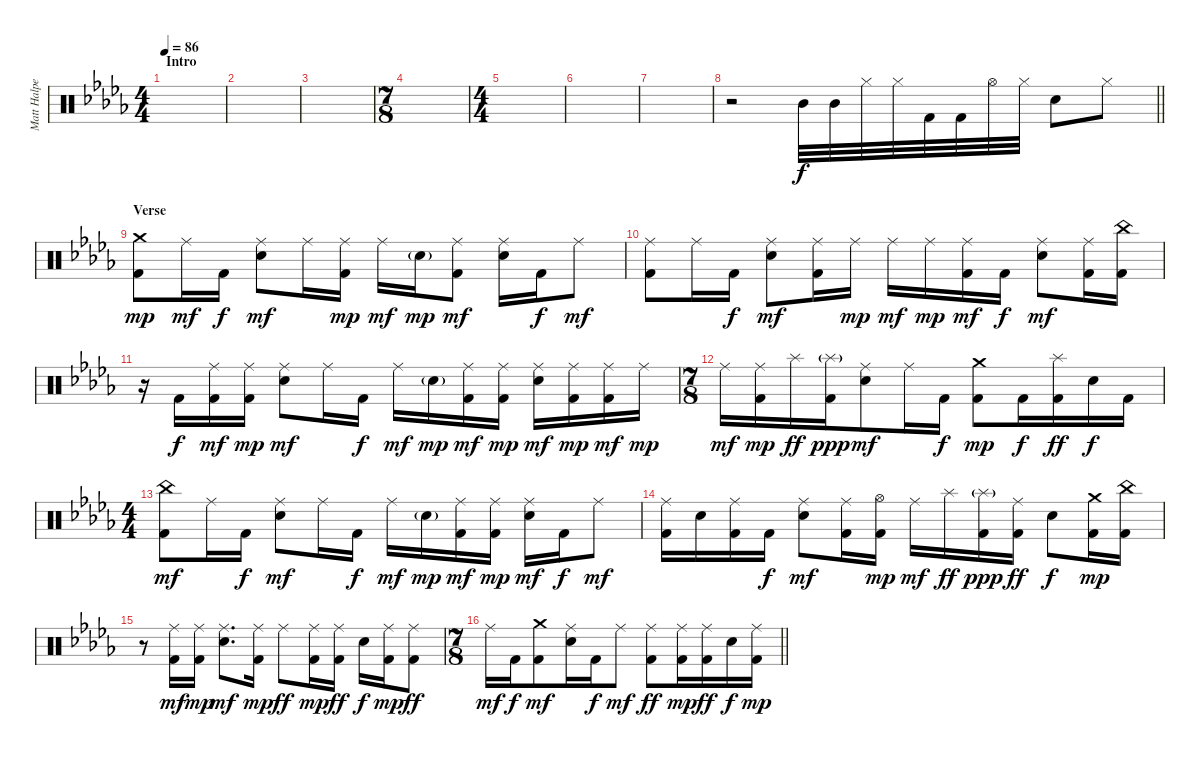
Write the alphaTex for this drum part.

\track ("Matt Halpern - Drums" "Matt Halpe") {instrument percussion}
\staff {score}
\articulation defaults
\ts (4 4)
\section ("" "Intro")
\tempo 86
\clef neutral
\ks bbminor
|
|
|
\ts (7 8)
|
\ts (4 4)
|
|
|
\barLineRight lightlight
r.2 "Mid Tom (hit)".32 "Mid Tom (hit)".32 "Hi-Hat (closed)".32 "Hi-Hat (closed)".32 "Kick (hit) 2".32 "Kick (hit) 2".32 "Hi-Hat (open)".32 "Hi-Hat (closed)".32 "Snare (hit) 2".8 "Hi-Hat (closed)".8 |
\section ("" "Verse")
("Crash medium (hit)" "Kick (hit) 2").8{dy mp} "Ride (middle)".16{dy mf} "Kick (hit) 2".16{dy f} ("Ride (middle)" "Snare (hit) 2").8{dy mf} "Ride (middle)".16 ("Ride (middle)" "Kick (hit) 2").16{dy mp} "Ride (middle)".16{dy mf} "Snare (hit) 2"{g}.16{dy mp} ("Ride (middle)" "Kick (hit) 2").8{dy mf} ("Ride (middle)" "Snare (hit) 2").16 "Kick (hit) 2".16{dy f} "Ride (middle)".8{dy mf} |
("Ride (middle)" "Kick (hit) 2").8 "Ride (middle)".16 "Kick (hit) 2".16{dy f} ("Ride (middle)" "Snare (hit) 2").8{dy mf} ("Ride (middle)" "Kick (hit) 2").16 "Ride (middle)".16{dy mp} "Ride (middle)".16{dy mf} "Ride (middle)".16{dy mp} ("Ride (middle)" "Kick (hit) 2").16{dy mf} "Kick (hit) 2".16{dy f} ("Ride (middle)" "Snare (hit) 2").8{dy mf} ("Ride (middle)" "Kick (hit) 2").16 ("China (hit)" "Kick (hit) 2").16 |
r.16 "Kick (hit) 2".16{dy f} ("Ride (middle)" "Kick (hit) 2").16{dy mf} ("Ride (middle)" "Kick (hit) 2").16{dy mp} ("Ride (middle)" "Snare (hit) 2").8{dy mf} "Ride (middle)".16 "Kick (hit) 2".16{dy f} "Ride (middle)".16{dy mf} "Snare (hit) 2"{g}.16{dy mp} ("Ride (middle)" "Kick (hit) 2").16{dy mf} ("Ride (middle)" "Kick (hit) 2").16{dy mp} ("Ride (middle)" "Snare (hit) 2").16{dy mf} ("Ride (middle)" "Kick (hit) 2").16{dy mp} ("Ride (middle)" "Kick (hit) 2").16{dy mf} "Ride (middle)".16{dy mp} |
\ts (7 8)
"Ride (middle)".16{dy mf} ("Ride (middle)" "Kick (hit) 2").16{dy mp} "Splash (hit)".16{dy ff} ("Splash (hit)"{g} "Kick (hit) 2").16{dy ppp} ("Ride (middle)" "Snare (hit) 2").8{dy mf} "Ride (middle)".16 "Kick (hit) 2".16{dy f} ("Crash medium (hit)" "Kick (hit) 2").8{dy mp} "Kick (hit) 2".16{dy f} ("Splash (hit)" "Kick (hit) 2").16{dy ff} "Snare (hit) 2".16{dy f} "Kick (hit) 2".16 |
\ts (4 4)
("China (hit)" "Kick (hit) 2").8{dy mf} "Ride (middle)".16 "Kick (hit) 2".16{dy f} ("Ride (middle)" "Snare (hit) 2").8{dy mf} "Ride (middle)".16 "Kick (hit) 2".16{dy f} "Ride (middle)".16{dy mf} "Snare (hit) 2"{g}.16{dy mp} ("Ride (middle)" "Kick (hit) 2").16{dy mf} ("Ride (middle)" "Kick (hit) 2").16{dy mp} ("Ride (middle)" "Snare (hit) 2").16{dy mf} "Kick (hit) 2".16{dy f} "Ride (middle)".8{dy mf} |
("Ride (middle)" "Kick (hit) 2").16 "Snare (hit) 2".16 ("Ride (middle)" "Kick (hit) 2").16 "Kick (hit) 2".16{dy f} ("Ride (middle)" "Snare (hit) 2").8{dy mf} ("Ride (middle)" "Kick (hit) 2").16 ("Hi-Hat (open)" "Kick (hit) 2").16{dy mp} "Ride (middle)".16{dy mf} "Splash (hit)".16{dy ff} ("Splash (hit)"{g} "Kick (hit) 2").16{dy ppp} ("Ride (middle)" "Kick (hit) 2").16{dy ff} "Snare (hit) 2".8{dy f} ("Crash medium (hit)" "Kick (hit) 2").16{dy mp} ("China (hit)" "Kick (hit) 2").16 |
r.8 ("Ride (middle)" "Kick (hit) 2").16{dy mf} ("Ride (middle)" "Kick (hit) 2").16{dy mp} ("Ride (middle)" "Snare (hit) 2").8{d dy mf} ("Ride (middle)" "Kick (hit) 2").16{dy mp} "Ride (middle)".8{dy ff} ("Ride (middle)" "Kick (hit) 2").16{dy mp} ("Ride (middle)" "Kick (hit) 2").16{dy ff} "Snare (hit) 2".16{dy f} ("Ride (middle)" "Kick (hit) 2").16{dy mp} ("Ride (middle)" "Kick (hit) 2").8{dy ff} |
\ts (7 8)
\barLineRight lightlight "Ride (middle)".16{dy mf} "Kick (hit) 2".16{dy f}
("Crash medium (hit)" "Kick (hit) 2").8{dy mf} ("Ride (middle)" "Snare (hit) 2").16 "Kick (hit) 2".16{dy f} "Ride (middle)".8{dy mf} ("Ride (middle)" "Kick (hit) 2").8{dy ff} ("Ride (middle)" "Kick (hit) 2").16{dy mp} ("Ride (middle)" "Kick (hit) 2").16{dy ff} "Snare (hit) 2".16{dy f} ("Ride (middle)" "Kick (hit) 2").16{dy mp}
